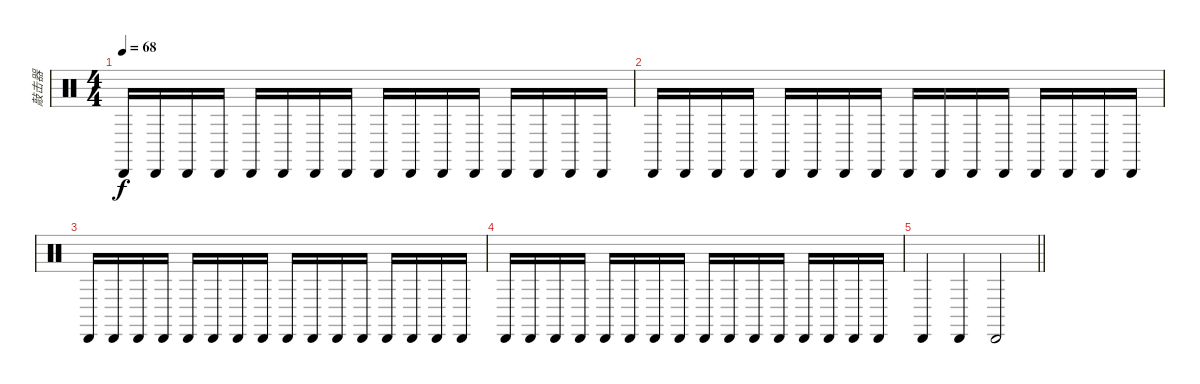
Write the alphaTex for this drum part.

\track ("敲击器" "敲击器") {instrument percussion}
\staff {score}
\articulation defaults
\ts (4 4)
\tempo 68
\clef neutral
\ks c "Cabasa (hit)".16{dy f} "Cabasa (hit)".16 "Cabasa (hit)".16 "Cabasa (hit)".16 "Cabasa (hit)".16 "Cabasa (hit)".16 "Cabasa (hit)".16 "Cabasa (hit)".16 "Cabasa (hit)".16 "Cabasa (hit)".16 "Cabasa (hit)".16 "Cabasa (hit)".16 "Cabasa (hit)".16 "Cabasa (hit)".16 "Cabasa (hit)".16 "Cabasa (hit)".16
|
"Cabasa (hit)".16 "Cabasa (hit)".16 "Cabasa (hit)".16 "Cabasa (hit)".16 "Cabasa (hit)".16 "Cabasa (hit)".16 "Cabasa (hit)".16 "Cabasa (hit)".16 "Cabasa (hit)".16 "Cabasa (hit)".16 "Cabasa (hit)".16 "Cabasa (hit)".16 "Cabasa (hit)".16 "Cabasa (hit)".16 "Cabasa (hit)".16 "Cabasa (hit)".16 |
"Cabasa (hit)".16 "Cabasa (hit)".16 "Cabasa (hit)".16 "Cabasa (hit)".16 "Cabasa (hit)".16 "Cabasa (hit)".16 "Cabasa (hit)".16 "Cabasa (hit)".16 "Cabasa (hit)".16 "Cabasa (hit)".16 "Cabasa (hit)".16 "Cabasa (hit)".16 "Cabasa (hit)".16 "Cabasa (hit)".16 "Cabasa (hit)".16 "Cabasa (hit)".16 |
"Cabasa (hit)".16 "Cabasa (hit)".16 "Cabasa (hit)".16 "Cabasa (hit)".16 "Cabasa (hit)".16 "Cabasa (hit)".16 "Cabasa (hit)".16 "Cabasa (hit)".16 "Cabasa (hit)".16 "Cabasa (hit)".16 "Cabasa (hit)".16 "Cabasa (hit)".16 "Cabasa (hit)".16 "Cabasa (hit)".16 "Cabasa (hit)".16 "Cabasa (hit)".16 |
\barLineRight lightlight "Cabasa (hit)".4 "Cabasa (hit)".4 "Cabasa (hit)".2
